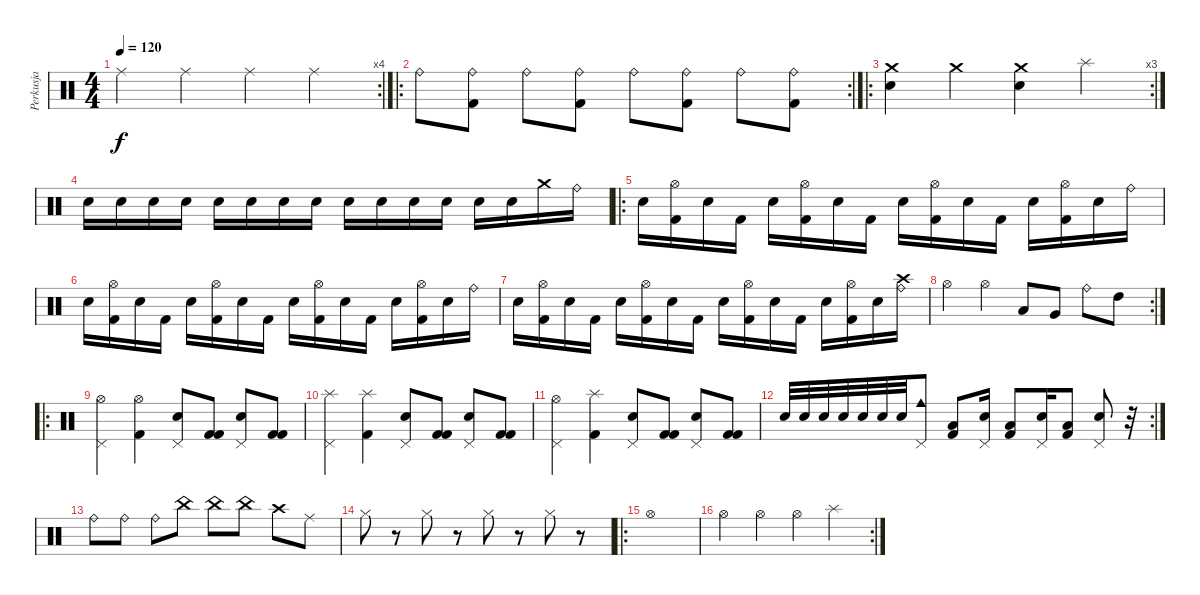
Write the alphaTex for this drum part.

\track ("Perkusja" "Perkusja") {instrument percussion}
\staff {score}
\articulation defaults
\rc 4
\ts (4 4)
\tempo 120
\clef neutral
\ks c "Ride (middle)".4{dy f} "Ride (middle)".4 "Ride (middle)".4 "Ride (middle)".4
|
\ro
\rc 2 "Ride (bell)".8
("Kick (hit) 2" "Ride (bell)").8 "Ride (bell)".8 ("Kick (hit) 2" "Ride (bell)").8 "Ride (bell)".8 ("Kick (hit) 2" "Ride (bell)").8 "Ride (bell)".8 ("Kick (hit) 2" "Ride (bell)").8 |
\ro
\rc 3
("Snare (hit) 2" "Crash medium (hit)").4 "Crash medium (hit)".4 ("Snare (hit) 2" "Crash medium (hit)").4 "Splash (hit)".4 |
"Snare (hit) 2".16 "Snare (hit) 2".16 "Snare (hit) 2".16 "Snare (hit) 2".16 "Snare (hit) 2".16 "Snare (hit) 2".16 "Snare (hit) 2".16 "Snare (hit) 2".16 "Snare (hit) 2".16 "Snare (hit) 2".16 "Snare (hit) 2".16 "Snare (hit) 2".16 "Snare (hit) 2".16 "Snare (hit) 2".16 "Crash medium (hit)".16 "Ride (bell)".16 |
\ro "Snare (hit) 2".16
("Hi-Hat (open)" "Kick (hit) 2").16 "Snare (hit) 2".16 "Kick (hit) 2".16 "Snare (hit) 2".16 ("Hi-Hat (open)" "Kick (hit) 2").16 "Snare (hit) 2".16 "Kick (hit) 2".16 "Snare (hit) 2".16 ("Hi-Hat (open)" "Kick (hit) 2").16 "Snare (hit) 2".16 "Kick (hit) 2".16 "Snare (hit) 2".16 ("Hi-Hat (open)" "Kick (hit) 2").16 "Snare (hit) 2".16 "Ride (bell)".16 |
"Snare (hit) 2".16 ("Hi-Hat (open)" "Kick (hit) 2").16 "Snare (hit) 2".16 "Kick (hit) 2".16 "Snare (hit) 2".16 ("Hi-Hat (open)" "Kick (hit) 2").16 "Snare (hit) 2".16 "Kick (hit) 2".16 "Snare (hit) 2".16 ("Hi-Hat (open)" "Kick (hit) 2").16 "Snare (hit) 2".16 "Kick (hit) 2".16 "Snare (hit) 2".16 ("Hi-Hat (open)" "Kick (hit) 2").16 "Snare (hit) 2".16 "Ride (bell)".16 |
"Snare (hit) 2".16 ("Hi-Hat (open)" "Kick (hit) 2").16 "Snare (hit) 2".16 "Kick (hit) 2".16 "Snare (hit) 2".16 ("Hi-Hat (open)" "Kick (hit) 2").16 "Snare (hit) 2".16 "Kick (hit) 2".16 "Snare (hit) 2".16 ("Hi-Hat (open)" "Kick (hit) 2").16 "Snare (hit) 2".16 "Kick (hit) 2".16 "Snare (hit) 2".16 ("Hi-Hat (open)" "Kick (hit) 2").16 "Snare (hit) 2".16 ("Crash high (hit)" "Ride (bell)").16 |
\rc 2 "Hi-Hat (open)".4 "Hi-Hat (open)".4 "Low Floor Tom (hit)".8 "Very Low Tom (hit)".8 "Ride (bell)".8 "High Tom (hit)".8
|
\ro
("Pedal Hi-Hat (hit)" "Hi-Hat (open)").4 ("Kick (hit) 2" "Hi-Hat (open)").4 ("Pedal Hi-Hat (hit)" "Electric Snare (hit)").8 ("Kick (hit) 2" "Kick (hit) 2").8 ("Pedal Hi-Hat (hit)" "Electric Snare (hit)").8 ("Kick (hit) 2" "Kick (hit) 2").8 |
("Pedal Hi-Hat (hit)" "Splash (hit)").4 ("Kick (hit) 2" "Splash (hit)").4 ("Pedal Hi-Hat (hit)" "Electric Snare (hit)").8 ("Kick (hit) 2" "Kick (hit) 2").8 ("Pedal Hi-Hat (hit)" "Electric Snare (hit)").8 ("Kick (hit) 2" "Kick (hit) 2").8 |
("Pedal Hi-Hat (hit)" "Hi-Hat (open)").4 ("Kick (hit) 2" "Splash (hit)").4 ("Pedal Hi-Hat (hit)" "Electric Snare (hit)").8 ("Kick (hit) 2" "Kick (hit) 2").8 ("Pedal Hi-Hat (hit)" "Electric Snare (hit)").8 ("Kick (hit) 2" "Kick (hit) 2").8 |
\rc 2 "Snare (hit) 2".32 "Snare (hit) 2".32 "Snare (hit) 2".32 "Snare (hit) 2".32 "Snare (hit) 2".32 "Snare (hit) 2".32 "Snare (hit) 2".32
("Pedal Hi-Hat (hit)" "Cowbell medium (hit)").8 ("Kick (hit) 2" "Low Tom (hit)").8 ("Pedal Hi-Hat (hit)" "Snare (hit) 2").16 ("Kick (hit) 2" "Low Tom (hit)").8 ("Pedal Hi-Hat (hit)" "Snare (hit) 2").16 ("Kick (hit) 2" "Low Tom (hit)").8 ("Pedal Hi-Hat (hit)" "Snare (hit) 2").8 r.32 |
"Ride (bell)".8 "Ride (bell)".8 "Ride (bell)".8 "China (hit)".8 "China (hit)".8 "China (hit)".8 "Crash high (hit)".8 "Ride (middle)".8 |
"Hi-Hat (closed)".8 r.8 "Hi-Hat (closed)".8 r.8 "Hi-Hat (closed)".8 r.8 "Hi-Hat (closed)".8 r.8 |
\ro "Hi-Hat (open)".1
|
\rc 2 "Hi-Hat (open)".4 "Hi-Hat (open)".4 "Hi-Hat (open)".4 "Splash (hit)".4
